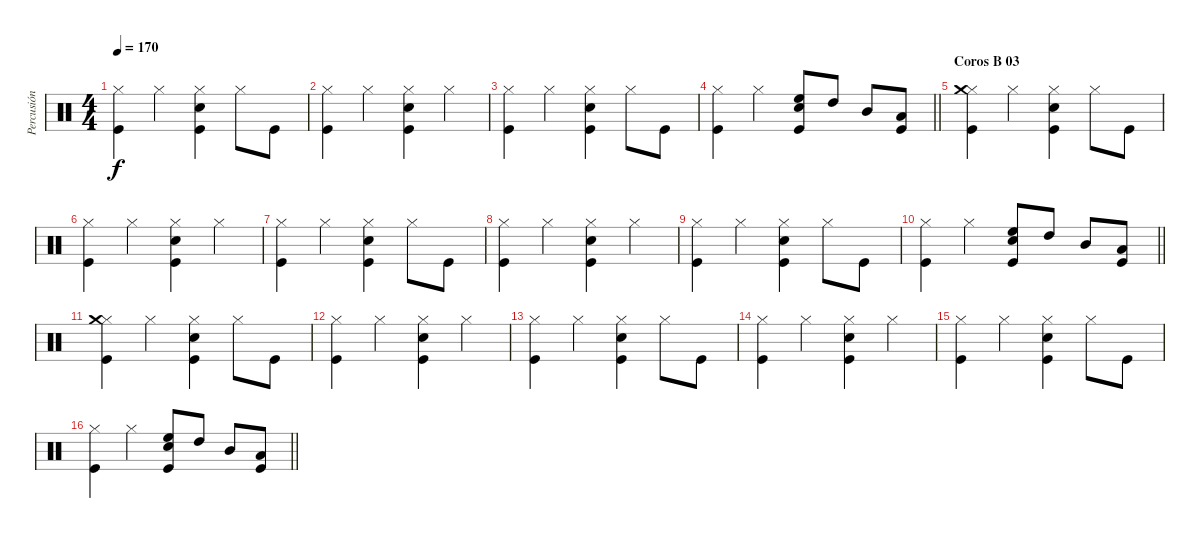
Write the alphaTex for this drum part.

\track ("Percusión" "Percusión") {instrument percussion}
\staff {score}
\articulation defaults
\ts (4 4)
\tempo 170
\clef neutral
\ks c
("Hi-Hat (closed)" "Kick (hit)").4{dy f} "Hi-Hat (closed)".4 ("Hi-Hat (closed)" "Snare (hit) 2" "Kick (hit)").4 "Hi-Hat (closed)".8 "Kick (hit)".8 |
("Hi-Hat (closed)" "Kick (hit)").4 "Hi-Hat (closed)".4 ("Hi-Hat (closed)" "Snare (hit) 2" "Kick (hit)").4 "Hi-Hat (closed)".4 |
("Hi-Hat (closed)" "Kick (hit)").4 "Hi-Hat (closed)".4 ("Hi-Hat (closed)" "Snare (hit) 2" "Kick (hit)").4 "Hi-Hat (closed)".8 "Kick (hit)".8 |
\barLineRight lightlight
("Hi-Hat (closed)" "Kick (hit)").4 "Hi-Hat (closed)".4 ("High Floor Tom (hit)" "Snare (hit) 2" "Kick (hit)").8 "High Tom (hit)".8 "Mid Tom (hit)".8 ("Low Tom (hit)" "Kick (hit)").8 |
\section ("" "Coros B 03")
("Hi-Hat (closed)" "Crash medium (hit)" "Kick (hit)").4 "Hi-Hat (closed)".4 ("Hi-Hat (closed)" "Snare (hit) 2" "Kick (hit)").4 "Hi-Hat (closed)".8 "Kick (hit)".8 |
("Hi-Hat (closed)" "Kick (hit)").4 "Hi-Hat (closed)".4 ("Hi-Hat (closed)" "Snare (hit) 2" "Kick (hit)").4 "Hi-Hat (closed)".4 |
("Hi-Hat (closed)" "Kick (hit)").4 "Hi-Hat (closed)".4 ("Hi-Hat (closed)" "Snare (hit) 2" "Kick (hit)").4 "Hi-Hat (closed)".8 "Kick (hit)".8 |
("Hi-Hat (closed)" "Kick (hit)").4 "Hi-Hat (closed)".4 ("Hi-Hat (closed)" "Snare (hit) 2" "Kick (hit)").4 "Hi-Hat (closed)".4 |
("Hi-Hat (closed)" "Kick (hit)").4 "Hi-Hat (closed)".4 ("Hi-Hat (closed)" "Snare (hit) 2" "Kick (hit)").4 "Hi-Hat (closed)".8 "Kick (hit)".8 |
\barLineRight lightlight
("Hi-Hat (closed)" "Kick (hit)").4 "Hi-Hat (closed)".4 ("High Floor Tom (hit)" "Snare (hit) 2" "Kick (hit)").8 "High Tom (hit)".8 "Mid Tom (hit)".8 ("Low Tom (hit)" "Kick (hit)").8 |
("Hi-Hat (closed)" "Crash medium (hit)" "Kick (hit)").4 "Hi-Hat (closed)".4 ("Hi-Hat (closed)" "Snare (hit) 2" "Kick (hit)").4 "Hi-Hat (closed)".8 "Kick (hit)".8 |
("Hi-Hat (closed)" "Kick (hit)").4 "Hi-Hat (closed)".4 ("Hi-Hat (closed)" "Snare (hit) 2" "Kick (hit)").4 "Hi-Hat (closed)".4 |
("Hi-Hat (closed)" "Kick (hit)").4 "Hi-Hat (closed)".4 ("Hi-Hat (closed)" "Snare (hit) 2" "Kick (hit)").4 "Hi-Hat (closed)".8 "Kick (hit)".8 |
("Hi-Hat (closed)" "Kick (hit)").4 "Hi-Hat (closed)".4 ("Hi-Hat (closed)" "Snare (hit) 2" "Kick (hit)").4 "Hi-Hat (closed)".4 |
("Hi-Hat (closed)" "Kick (hit)").4 "Hi-Hat (closed)".4 ("Hi-Hat (closed)" "Snare (hit) 2" "Kick (hit)").4 "Hi-Hat (closed)".8 "Kick (hit)".8 |
\barLineRight lightlight
("Hi-Hat (closed)" "Kick (hit)").4 "Hi-Hat (closed)".4 ("High Floor Tom (hit)" "Snare (hit) 2" "Kick (hit)").8 "High Tom (hit)".8 "Mid Tom (hit)".8 ("Low Tom (hit)" "Kick (hit)").8
